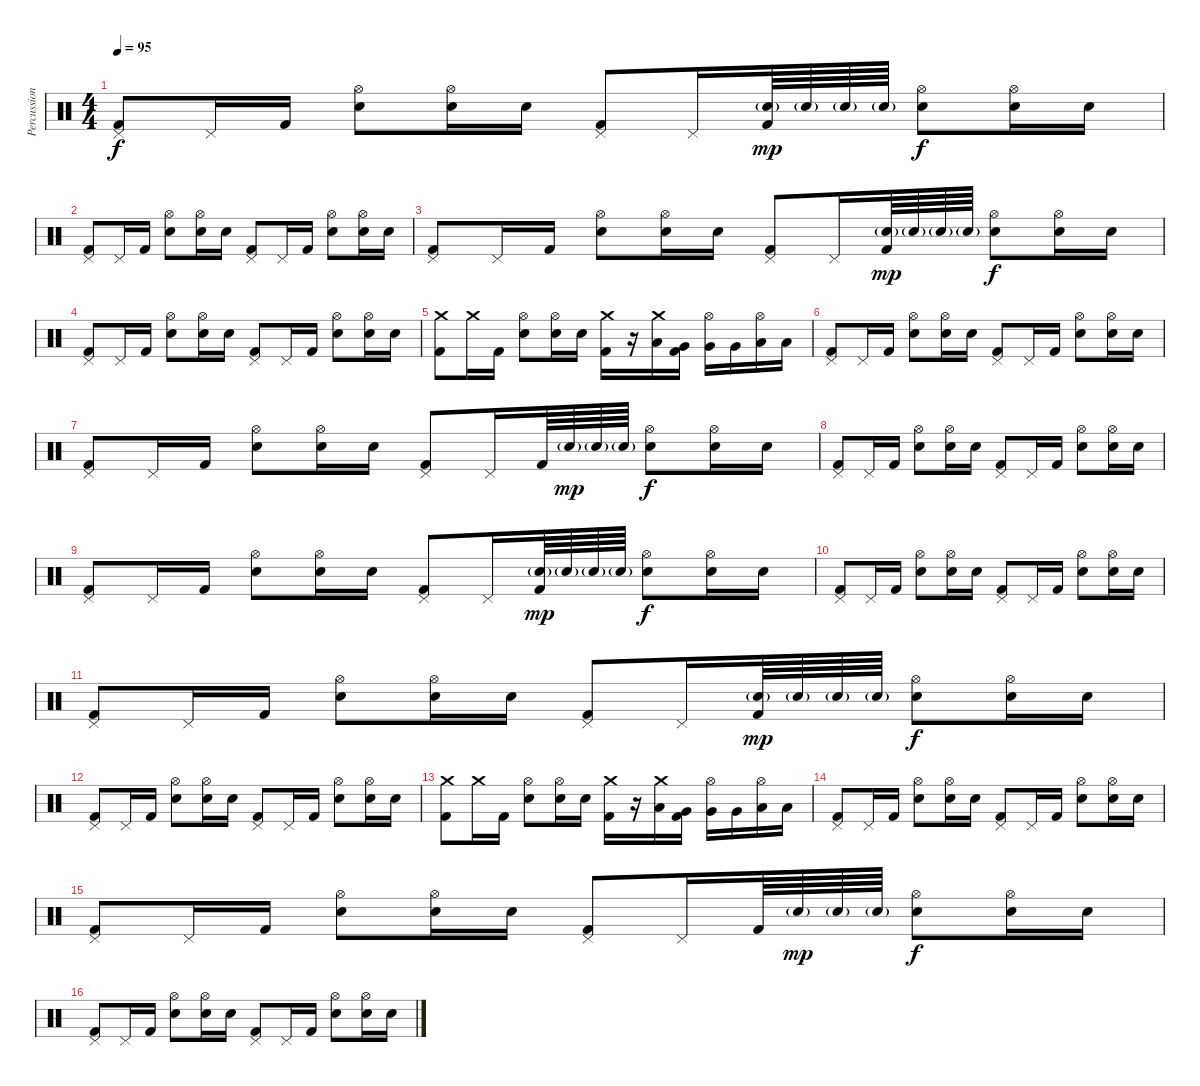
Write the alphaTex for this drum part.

\track ("Percussions" "Percussion") {instrument percussion}
\staff {score}
\articulation defaults
\ts (4 4)
\tempo 95
\clef neutral
\ks c
("Pedal Hi-Hat (hit)" "Kick (hit) 2").8{dy f} "Pedal Hi-Hat (hit)".16 "Kick (hit) 2".16 ("Hi-Hat (open)" "Electric Snare (hit)").8 ("Hi-Hat (open)" "Electric Snare (hit)").16 "Electric Snare (hit)".16 ("Pedal Hi-Hat (hit)" "Kick (hit) 2").8 "Pedal Hi-Hat (hit)".16 ("Electric Snare (hit)"{g} "Kick (hit) 2").64{dy mp} "Electric Snare (hit)"{g}.64 "Electric Snare (hit)"{g}.64 "Electric Snare (hit)"{g}.64 ("Hi-Hat (open)" "Electric Snare (hit)").8{dy f} ("Hi-Hat (open)" "Electric Snare (hit)").16 "Electric Snare (hit)".16 |
("Pedal Hi-Hat (hit)" "Kick (hit) 2").8 "Pedal Hi-Hat (hit)".16 "Kick (hit) 2".16 ("Hi-Hat (open)" "Electric Snare (hit)").8 ("Hi-Hat (open)" "Electric Snare (hit)").16 "Electric Snare (hit)".16 ("Pedal Hi-Hat (hit)" "Kick (hit) 2").8 "Pedal Hi-Hat (hit)".16 "Kick (hit) 2".16 ("Hi-Hat (open)" "Electric Snare (hit)").8 ("Hi-Hat (open)" "Electric Snare (hit)").16 "Electric Snare (hit)".16 |
("Pedal Hi-Hat (hit)" "Kick (hit) 2").8 "Pedal Hi-Hat (hit)".16 "Kick (hit) 2".16 ("Hi-Hat (open)" "Electric Snare (hit)").8 ("Hi-Hat (open)" "Electric Snare (hit)").16 "Electric Snare (hit)".16 ("Pedal Hi-Hat (hit)" "Kick (hit) 2").8 "Pedal Hi-Hat (hit)".16 ("Electric Snare (hit)"{g} "Kick (hit) 2").64{dy mp} "Electric Snare (hit)"{g}.64 "Electric Snare (hit)"{g}.64 "Electric Snare (hit)"{g}.64 ("Hi-Hat (open)" "Electric Snare (hit)").8{dy f} ("Hi-Hat (open)" "Electric Snare (hit)").16 "Electric Snare (hit)".16 |
("Pedal Hi-Hat (hit)" "Kick (hit) 2").8 "Pedal Hi-Hat (hit)".16 "Kick (hit) 2".16 ("Hi-Hat (open)" "Electric Snare (hit)").8 ("Hi-Hat (open)" "Electric Snare (hit)").16 "Electric Snare (hit)".16 ("Pedal Hi-Hat (hit)" "Kick (hit) 2").8 "Pedal Hi-Hat (hit)".16 "Kick (hit) 2".16 ("Hi-Hat (open)" "Electric Snare (hit)").8 ("Hi-Hat (open)" "Electric Snare (hit)").16 "Electric Snare (hit)".16 |
("Crash medium (hit)" "Kick (hit) 2").8 "Crash medium (hit)".16 "Kick (hit) 2".16 ("Hi-Hat (open)" "Electric Snare (hit)").8 ("Hi-Hat (open)" "Electric Snare (hit)").16 "Electric Snare (hit)".16 ("Crash medium (hit)" "Kick (hit) 2").16 r.16 ("Crash medium (hit)" "Low Tom (hit)").16 ("Very Low Tom (hit)" "Kick (hit) 2").16 ("Hi-Hat (open)" "Very Low Tom (hit)").16 "Very Low Tom (hit)".16 ("Hi-Hat (open)" "Low Floor Tom (hit)").16 "Low Floor Tom (hit)".16 |
("Pedal Hi-Hat (hit)" "Kick (hit) 2").8 "Pedal Hi-Hat (hit)".16 "Kick (hit) 2".16 ("Hi-Hat (open)" "Electric Snare (hit)").8 ("Hi-Hat (open)" "Electric Snare (hit)").16 "Electric Snare (hit)".16 ("Pedal Hi-Hat (hit)" "Kick (hit) 2").8 "Pedal Hi-Hat (hit)".16 "Kick (hit) 2".16 ("Hi-Hat (open)" "Electric Snare (hit)").8 ("Hi-Hat (open)" "Electric Snare (hit)").16 "Electric Snare (hit)".16 |
("Pedal Hi-Hat (hit)" "Kick (hit) 2").8 "Pedal Hi-Hat (hit)".16 "Kick (hit) 2".16 ("Hi-Hat (open)" "Electric Snare (hit)").8 ("Hi-Hat (open)" "Electric Snare (hit)").16 "Electric Snare (hit)".16 ("Pedal Hi-Hat (hit)" "Kick (hit) 2").8 "Pedal Hi-Hat (hit)".16 "Kick (hit) 2".64 "Electric Snare (hit)"{g}.64{dy mp} "Electric Snare (hit)"{g}.64 "Electric Snare (hit)"{g}.64 ("Hi-Hat (open)" "Electric Snare (hit)").8{dy f} ("Hi-Hat (open)" "Electric Snare (hit)").16 "Electric Snare (hit)".16 |
("Pedal Hi-Hat (hit)" "Kick (hit) 2").8 "Pedal Hi-Hat (hit)".16 "Kick (hit) 2".16 ("Hi-Hat (open)" "Electric Snare (hit)").8 ("Hi-Hat (open)" "Electric Snare (hit)").16 "Electric Snare (hit)".16 ("Pedal Hi-Hat (hit)" "Kick (hit) 2").8 "Pedal Hi-Hat (hit)".16 "Kick (hit) 2".16 ("Hi-Hat (open)" "Electric Snare (hit)").8 ("Hi-Hat (open)" "Electric Snare (hit)").16 "Electric Snare (hit)".16 |
("Pedal Hi-Hat (hit)" "Kick (hit) 2").8 "Pedal Hi-Hat (hit)".16 "Kick (hit) 2".16 ("Hi-Hat (open)" "Electric Snare (hit)").8 ("Hi-Hat (open)" "Electric Snare (hit)").16 "Electric Snare (hit)".16 ("Pedal Hi-Hat (hit)" "Kick (hit) 2").8 "Pedal Hi-Hat (hit)".16 ("Electric Snare (hit)"{g} "Kick (hit) 2").64{dy mp} "Electric Snare (hit)"{g}.64 "Electric Snare (hit)"{g}.64 "Electric Snare (hit)"{g}.64 ("Hi-Hat (open)" "Electric Snare (hit)").8{dy f} ("Hi-Hat (open)" "Electric Snare (hit)").16 "Electric Snare (hit)".16 |
("Pedal Hi-Hat (hit)" "Kick (hit) 2").8 "Pedal Hi-Hat (hit)".16 "Kick (hit) 2".16 ("Hi-Hat (open)" "Electric Snare (hit)").8 ("Hi-Hat (open)" "Electric Snare (hit)").16 "Electric Snare (hit)".16 ("Pedal Hi-Hat (hit)" "Kick (hit) 2").8 "Pedal Hi-Hat (hit)".16 "Kick (hit) 2".16 ("Hi-Hat (open)" "Electric Snare (hit)").8 ("Hi-Hat (open)" "Electric Snare (hit)").16 "Electric Snare (hit)".16 |
("Pedal Hi-Hat (hit)" "Kick (hit) 2").8 "Pedal Hi-Hat (hit)".16 "Kick (hit) 2".16 ("Hi-Hat (open)" "Electric Snare (hit)").8 ("Hi-Hat (open)" "Electric Snare (hit)").16 "Electric Snare (hit)".16 ("Pedal Hi-Hat (hit)" "Kick (hit) 2").8 "Pedal Hi-Hat (hit)".16 ("Electric Snare (hit)"{g} "Kick (hit) 2").64{dy mp} "Electric Snare (hit)"{g}.64 "Electric Snare (hit)"{g}.64 "Electric Snare (hit)"{g}.64 ("Hi-Hat (open)" "Electric Snare (hit)").8{dy f} ("Hi-Hat (open)" "Electric Snare (hit)").16 "Electric Snare (hit)".16 |
("Pedal Hi-Hat (hit)" "Kick (hit) 2").8 "Pedal Hi-Hat (hit)".16 "Kick (hit) 2".16 ("Hi-Hat (open)" "Electric Snare (hit)").8 ("Hi-Hat (open)" "Electric Snare (hit)").16 "Electric Snare (hit)".16 ("Pedal Hi-Hat (hit)" "Kick (hit) 2").8 "Pedal Hi-Hat (hit)".16 "Kick (hit) 2".16 ("Hi-Hat (open)" "Electric Snare (hit)").8 ("Hi-Hat (open)" "Electric Snare (hit)").16 "Electric Snare (hit)".16 |
("Crash medium (hit)" "Kick (hit) 2").8 "Crash medium (hit)".16 "Kick (hit) 2".16 ("Hi-Hat (open)" "Electric Snare (hit)").8 ("Hi-Hat (open)" "Electric Snare (hit)").16 "Electric Snare (hit)".16 ("Crash medium (hit)" "Kick (hit) 2").16 r.16 ("Crash medium (hit)" "Low Tom (hit)").16 ("Very Low Tom (hit)" "Kick (hit) 2").16 ("Hi-Hat (open)" "Very Low Tom (hit)").16 "Very Low Tom (hit)".16 ("Hi-Hat (open)" "Low Floor Tom (hit)").16 "Low Floor Tom (hit)".16 |
("Pedal Hi-Hat (hit)" "Kick (hit) 2").8{volume 5} "Pedal Hi-Hat (hit)".16 "Kick (hit) 2".16 ("Hi-Hat (open)" "Electric Snare (hit)").8 ("Hi-Hat (open)" "Electric Snare (hit)").16 "Electric Snare (hit)".16 ("Pedal Hi-Hat (hit)" "Kick (hit) 2").8 "Pedal Hi-Hat (hit)".16 "Kick (hit) 2".16 ("Hi-Hat (open)" "Electric Snare (hit)").8 ("Hi-Hat (open)" "Electric Snare (hit)").16 "Electric Snare (hit)".16 |
("Pedal Hi-Hat (hit)" "Kick (hit) 2").8 "Pedal Hi-Hat (hit)".16 "Kick (hit) 2".16 ("Hi-Hat (open)" "Electric Snare (hit)").8 ("Hi-Hat (open)" "Electric Snare (hit)").16 "Electric Snare (hit)".16 ("Pedal Hi-Hat (hit)" "Kick (hit) 2").8 "Pedal Hi-Hat (hit)".16 "Kick (hit) 2".64 "Electric Snare (hit)"{g}.64{dy mp} "Electric Snare (hit)"{g}.64 "Electric Snare (hit)"{g}.64 ("Hi-Hat (open)" "Electric Snare (hit)").8{dy f} ("Hi-Hat (open)" "Electric Snare (hit)").16 "Electric Snare (hit)".16 |
("Pedal Hi-Hat (hit)" "Kick (hit) 2").8 "Pedal Hi-Hat (hit)".16 "Kick (hit) 2".16 ("Hi-Hat (open)" "Electric Snare (hit)").8 ("Hi-Hat (open)" "Electric Snare (hit)").16 "Electric Snare (hit)".16 ("Pedal Hi-Hat (hit)" "Kick (hit) 2").8 "Pedal Hi-Hat (hit)".16 "Kick (hit) 2".16 ("Hi-Hat (open)" "Electric Snare (hit)").8 ("Hi-Hat (open)" "Electric Snare (hit)").16 "Electric Snare (hit)".16
